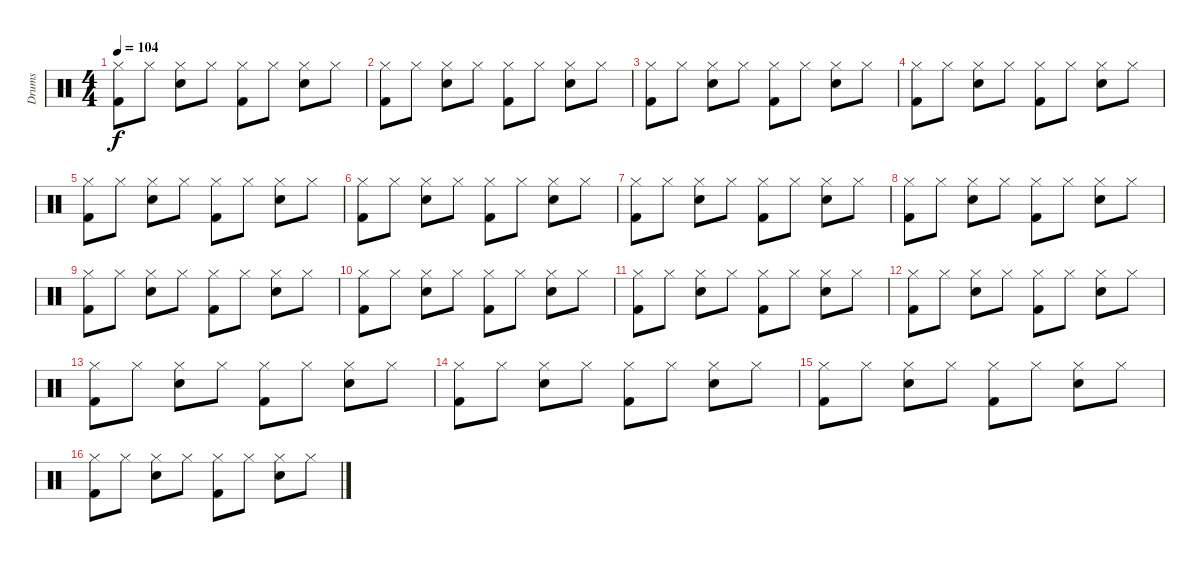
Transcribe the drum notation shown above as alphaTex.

\track ("Drums" "Drums") {instrument percussion}
\staff {score}
\articulation defaults
\ts (4 4)
\tempo 104
\clef neutral
\ks c
("Hi-Hat (closed)" "Kick (hit) 2").8{dy f} "Hi-Hat (closed)".8 ("Hi-Hat (closed)" "Snare (hit) 2").8 "Hi-Hat (closed)".8 ("Hi-Hat (closed)" "Kick (hit) 2").8 "Hi-Hat (closed)".8 ("Hi-Hat (closed)" "Snare (hit) 2").8 "Hi-Hat (closed)".8 |
("Hi-Hat (closed)" "Kick (hit) 2").8 "Hi-Hat (closed)".8 ("Hi-Hat (closed)" "Snare (hit) 2").8 "Hi-Hat (closed)".8 ("Hi-Hat (closed)" "Kick (hit) 2").8 "Hi-Hat (closed)".8 ("Hi-Hat (closed)" "Snare (hit) 2").8 "Hi-Hat (closed)".8 |
("Hi-Hat (closed)" "Kick (hit) 2").8 "Hi-Hat (closed)".8 ("Hi-Hat (closed)" "Snare (hit) 2").8 "Hi-Hat (closed)".8 ("Hi-Hat (closed)" "Kick (hit) 2").8 "Hi-Hat (closed)".8 ("Hi-Hat (closed)" "Snare (hit) 2").8 "Hi-Hat (closed)".8 |
("Hi-Hat (closed)" "Kick (hit) 2").8 "Hi-Hat (closed)".8 ("Hi-Hat (closed)" "Snare (hit) 2").8 "Hi-Hat (closed)".8 ("Hi-Hat (closed)" "Kick (hit) 2").8 "Hi-Hat (closed)".8 ("Hi-Hat (closed)" "Snare (hit) 2").8 "Hi-Hat (closed)".8 |
("Hi-Hat (closed)" "Kick (hit) 2").8 "Hi-Hat (closed)".8 ("Hi-Hat (closed)" "Snare (hit) 2").8 "Hi-Hat (closed)".8 ("Hi-Hat (closed)" "Kick (hit) 2").8 "Hi-Hat (closed)".8 ("Hi-Hat (closed)" "Snare (hit) 2").8 "Hi-Hat (closed)".8 |
("Hi-Hat (closed)" "Kick (hit) 2").8 "Hi-Hat (closed)".8 ("Hi-Hat (closed)" "Snare (hit) 2").8 "Hi-Hat (closed)".8 ("Hi-Hat (closed)" "Kick (hit) 2").8 "Hi-Hat (closed)".8 ("Hi-Hat (closed)" "Snare (hit) 2").8 "Hi-Hat (closed)".8 |
("Hi-Hat (closed)" "Kick (hit) 2").8 "Hi-Hat (closed)".8 ("Hi-Hat (closed)" "Snare (hit) 2").8 "Hi-Hat (closed)".8 ("Hi-Hat (closed)" "Kick (hit) 2").8 "Hi-Hat (closed)".8 ("Hi-Hat (closed)" "Snare (hit) 2").8 "Hi-Hat (closed)".8 |
("Hi-Hat (closed)" "Kick (hit) 2").8 "Hi-Hat (closed)".8 ("Hi-Hat (closed)" "Snare (hit) 2").8 "Hi-Hat (closed)".8 ("Hi-Hat (closed)" "Kick (hit) 2").8 "Hi-Hat (closed)".8 ("Hi-Hat (closed)" "Snare (hit) 2").8 "Hi-Hat (closed)".8 |
("Hi-Hat (closed)" "Kick (hit) 2").8 "Hi-Hat (closed)".8 ("Hi-Hat (closed)" "Snare (hit) 2").8 "Hi-Hat (closed)".8 ("Hi-Hat (closed)" "Kick (hit) 2").8 "Hi-Hat (closed)".8 ("Hi-Hat (closed)" "Snare (hit) 2").8 "Hi-Hat (closed)".8 |
("Hi-Hat (closed)" "Kick (hit) 2").8 "Hi-Hat (closed)".8 ("Hi-Hat (closed)" "Snare (hit) 2").8 "Hi-Hat (closed)".8 ("Hi-Hat (closed)" "Kick (hit) 2").8 "Hi-Hat (closed)".8 ("Hi-Hat (closed)" "Snare (hit) 2").8 "Hi-Hat (closed)".8 |
("Hi-Hat (closed)" "Kick (hit) 2").8 "Hi-Hat (closed)".8 ("Hi-Hat (closed)" "Snare (hit) 2").8 "Hi-Hat (closed)".8 ("Hi-Hat (closed)" "Kick (hit) 2").8 "Hi-Hat (closed)".8 ("Hi-Hat (closed)" "Snare (hit) 2").8 "Hi-Hat (closed)".8 |
("Hi-Hat (closed)" "Kick (hit) 2").8 "Hi-Hat (closed)".8 ("Hi-Hat (closed)" "Snare (hit) 2").8 "Hi-Hat (closed)".8 ("Hi-Hat (closed)" "Kick (hit) 2").8 "Hi-Hat (closed)".8 ("Hi-Hat (closed)" "Snare (hit) 2").8 "Hi-Hat (closed)".8 |
("Hi-Hat (closed)" "Kick (hit) 2").8 "Hi-Hat (closed)".8 ("Hi-Hat (closed)" "Snare (hit) 2").8 "Hi-Hat (closed)".8 ("Hi-Hat (closed)" "Kick (hit) 2").8 "Hi-Hat (closed)".8 ("Hi-Hat (closed)" "Snare (hit) 2").8 "Hi-Hat (closed)".8 |
("Hi-Hat (closed)" "Kick (hit) 2").8 "Hi-Hat (closed)".8 ("Hi-Hat (closed)" "Snare (hit) 2").8 "Hi-Hat (closed)".8 ("Hi-Hat (closed)" "Kick (hit) 2").8 "Hi-Hat (closed)".8 ("Hi-Hat (closed)" "Snare (hit) 2").8 "Hi-Hat (closed)".8 |
("Hi-Hat (closed)" "Kick (hit) 2").8 "Hi-Hat (closed)".8 ("Hi-Hat (closed)" "Snare (hit) 2").8 "Hi-Hat (closed)".8 ("Hi-Hat (closed)" "Kick (hit) 2").8 "Hi-Hat (closed)".8 ("Hi-Hat (closed)" "Snare (hit) 2").8 "Hi-Hat (closed)".8 |
("Hi-Hat (closed)" "Kick (hit) 2").8 "Hi-Hat (closed)".8 ("Hi-Hat (closed)" "Snare (hit) 2").8 "Hi-Hat (closed)".8 ("Hi-Hat (closed)" "Kick (hit) 2").8 "Hi-Hat (closed)".8 ("Hi-Hat (closed)" "Snare (hit) 2").8 "Hi-Hat (closed)".8
